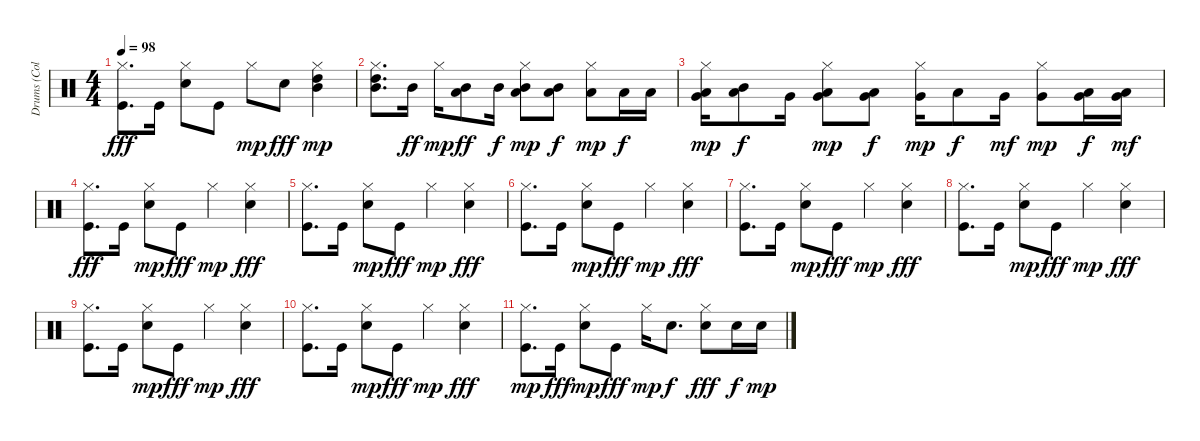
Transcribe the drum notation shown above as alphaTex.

\track ("Drums (Collins)" "Drums (Col") {instrument percussion}
\staff {score}
\articulation defaults
\ts (4 4)
\tempo 98
\clef neutral
\ks c
("Hi-Hat (closed)" "Kick (hit)").8{d dy fff} "Kick (hit)".16 ("Hi-Hat (closed)" "Electric Snare (hit)").8 "Kick (hit)".8 "Hi-Hat (closed)".8{dy mp} "Electric Snare (hit)".8{dy fff} ("High Tom (hit)" "Mid Tom (hit)" "Hi-Hat (closed)").4{dy mp} |
("Mid Tom (hit)" "High Tom (hit)" "Hi-Hat (closed)").8{d} "Mid Tom (hit)".16{dy ff} "Hi-Hat (closed)".16{dy mp} ("Mid Tom (hit)" "Low Tom (hit)").8{dy ff} "Mid Tom (hit)".16{dy f} ("Low Tom (hit)" "Mid Tom (hit)" "Hi-Hat (closed)").8{dy mp} ("Mid Tom (hit)" "Low Tom (hit)").8{dy f} ("Low Tom (hit)" "Hi-Hat (closed)").8{dy mp} "Low Tom (hit)".16{dy f} "Low Tom (hit)".16 |
("Very Low Tom (hit)" "Low Tom (hit)" "Hi-Hat (closed)").16{dy mp volume 4} ("Mid Tom (hit)" "Low Tom (hit)").8{dy f} "Very Low Tom (hit)".16 ("Very Low Tom (hit)" "Low Tom (hit)" "Hi-Hat (closed)").8{dy mp} ("Low Tom (hit)" "Very Low Tom (hit)").8{dy f} ("Very Low Tom (hit)" "Hi-Hat (closed)").16{dy mp} "Low Tom (hit)".8{dy f} "Very Low Tom (hit)".16{dy mf} ("Very Low Tom (hit)" "Hi-Hat (closed)").8{dy mp} ("Low Floor Tom (hit)" "Very Low Tom (hit)").16{dy f} ("Very Low Tom (hit)" "Low Floor Tom (hit)").16{dy mf} |
("Hi-Hat (closed)" "Kick (hit)").8{d dy fff} "Kick (hit)".16 ("Electric Snare (hit)" "Hi-Hat (closed)").8{dy mp} "Kick (hit)".8{dy fff} "Hi-Hat (closed)".4{dy mp} ("Hi-Hat (closed)" "Electric Snare (hit)").4{dy fff} |
("Hi-Hat (closed)" "Kick (hit)").8{d} "Kick (hit)".16 ("Electric Snare (hit)" "Hi-Hat (closed)").8{dy mp} "Kick (hit)".8{dy fff} "Hi-Hat (closed)".4{dy mp} ("Hi-Hat (closed)" "Electric Snare (hit)").4{dy fff} |
("Hi-Hat (closed)" "Kick (hit)").8{d volume 1} "Kick (hit)".16 ("Electric Snare (hit)" "Hi-Hat (closed)").8{dy mp} "Kick (hit)".8{dy fff} "Hi-Hat (closed)".4{dy mp} ("Hi-Hat (closed)" "Electric Snare (hit)").4{dy fff} |
("Hi-Hat (closed)" "Kick (hit)").8{d} "Kick (hit)".16 ("Electric Snare (hit)" "Hi-Hat (closed)").8{dy mp} "Kick (hit)".8{dy fff} "Hi-Hat (closed)".4{dy mp} ("Hi-Hat (closed)" "Electric Snare (hit)").4{dy fff} |
("Hi-Hat (closed)" "Kick (hit)").8{d} "Kick (hit)".16 ("Electric Snare (hit)" "Hi-Hat (closed)").8{dy mp} "Kick (hit)".8{dy fff} "Hi-Hat (closed)".4{dy mp} ("Hi-Hat (closed)" "Electric Snare (hit)").4{dy fff} |
("Hi-Hat (closed)" "Kick (hit)").8{d} "Kick (hit)".16 ("Electric Snare (hit)" "Hi-Hat (closed)").8{dy mp} "Kick (hit)".8{dy fff} "Hi-Hat (closed)".4{dy mp} ("Hi-Hat (closed)" "Electric Snare (hit)").4{dy fff} |
("Hi-Hat (closed)" "Kick (hit)").8{d} "Kick (hit)".16 ("Electric Snare (hit)" "Hi-Hat (closed)").8{dy mp} "Kick (hit)".8{dy fff} "Hi-Hat (closed)".4{dy mp} ("Hi-Hat (closed)" "Electric Snare (hit)").4{dy fff} |
("Kick (hit)" "Hi-Hat (closed)").8{d dy mp} "Kick (hit)".16{dy fff} ("Electric Snare (hit)" "Hi-Hat (closed)").8{dy mp} "Kick (hit)".8{dy fff} "Hi-Hat (closed)".16{dy mp} "Electric Snare (hit)".8{d dy f} ("Hi-Hat (closed)" "Electric Snare (hit)").8{dy fff} "Electric Snare (hit)".16{dy f} "Electric Snare (hit)".16{dy mp}
